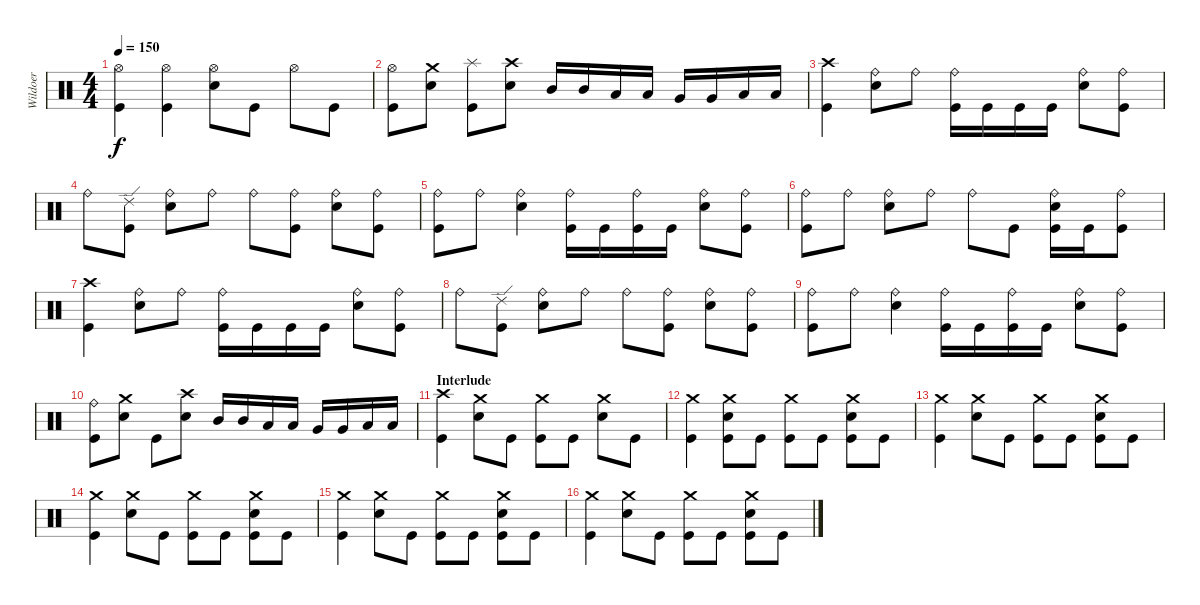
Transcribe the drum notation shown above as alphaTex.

\track ("Wildoer" "Wildoer") {instrument percussion}
\staff {score}
\articulation defaults
\ts (4 4)
\tempo 150
\clef neutral
\ks c
("Hi-Hat (open)" "Kick (hit)").4{dy f} ("Hi-Hat (open)" "Kick (hit)").4 ("Hi-Hat (open)" "Electric Snare (hit)").8 "Kick (hit)".8 "Hi-Hat (open)".8 "Kick (hit)".8 |
("Hi-Hat (open)" "Kick (hit)").8 ("Crash medium (hit)" "Electric Snare (hit)").8 ("Splash (hit)" "Kick (hit)").8 ("Crash high (hit)" "Electric Snare (hit)").8 "Mid Tom (hit)".16 "Mid Tom (hit)".16 "Low Tom (hit)".16 "Low Tom (hit)".16 "Very Low Tom (hit)".16 "Very Low Tom (hit)".16 "Low Floor Tom (hit)".16 "Low Floor Tom (hit)".16 |
("Crash high (hit)" "Kick (hit)").4 ("Ride (bell)" "Electric Snare (hit)").8 "Ride (bell)".8 ("Ride (bell)" "Kick (hit)").16 "Kick (hit)".16 "Kick (hit)".16 "Kick (hit)".16 ("Ride (bell)" "Electric Snare (hit)").8 ("Ride (bell)" "Kick (hit)").8 |
"Ride (bell)".8 ("Ride (edge) 2" "Kick (hit)").8 ("Ride (bell)" "Electric Snare (hit)").8 "Ride (bell)".8 "Ride (bell)".8 ("Ride (bell)" "Kick (hit)").8 ("Ride (bell)" "Electric Snare (hit)").8 ("Ride (bell)" "Kick (hit)").8 |
("Ride (bell)" "Kick (hit)").8 "Ride (bell)".8 ("Ride (bell)" "Electric Snare (hit)").4 ("Ride (bell)" "Kick (hit)").16 "Kick (hit)".16 ("Ride (bell)" "Kick (hit)").16 "Kick (hit)".16 ("Ride (bell)" "Electric Snare (hit)").8 ("Ride (bell)" "Kick (hit)").8 |
("Ride (bell)" "Kick (hit)").8 "Ride (bell)".8 ("Ride (bell)" "Electric Snare (hit)").8 "Ride (bell)".8 "Ride (bell)".8 "Kick (hit)".8 ("Ride (bell)" "Electric Snare (hit)" "Kick (hit)").16 "Kick (hit)".16 ("Ride (bell)" "Kick (hit)").8 |
("Crash high (hit)" "Kick (hit)").4 ("Ride (bell)" "Electric Snare (hit)").8 "Ride (bell)".8 ("Ride (bell)" "Kick (hit)").16 "Kick (hit)".16 "Kick (hit)".16 "Kick (hit)".16 ("Ride (bell)" "Electric Snare (hit)").8 ("Ride (bell)" "Kick (hit)").8 |
"Ride (bell)".8 ("Ride (edge) 2" "Kick (hit)").8 ("Ride (bell)" "Electric Snare (hit)").8 "Ride (bell)".8 "Ride (bell)".8 ("Ride (bell)" "Kick (hit)").8 ("Ride (bell)" "Electric Snare (hit)").8 ("Ride (bell)" "Kick (hit)").8 |
("Ride (bell)" "Kick (hit)").8 "Ride (bell)".8 ("Ride (bell)" "Electric Snare (hit)").4 ("Ride (bell)" "Kick (hit)").16 "Kick (hit)".16 ("Ride (bell)" "Kick (hit)").16 "Kick (hit)".16 ("Ride (bell)" "Electric Snare (hit)").8 ("Ride (bell)" "Kick (hit)").8 |
("Ride (bell)" "Kick (hit)").8 ("Crash medium (hit)" "Electric Snare (hit)").8 "Kick (hit)".8 ("Crash high (hit)" "Electric Snare (hit)").8 "Mid Tom (hit)".16 "Mid Tom (hit)".16 "Low Tom (hit)".16 "Low Tom (hit)".16 "Very Low Tom (hit)".16 "Very Low Tom (hit)".16 "Low Floor Tom (hit)".16 "Low Floor Tom (hit)".16 |
\section ("" "Interlude")
("Crash high (hit)" "Kick (hit)").4 ("Crash medium (hit)" "Electric Snare (hit)").8 "Kick (hit)".8 ("Crash medium (hit)" "Kick (hit)").8 "Kick (hit)".8 ("Crash medium (hit)" "Electric Snare (hit)").8 "Kick (hit)".8 |
("Crash medium (hit)" "Kick (hit)").4 ("Crash medium (hit)" "Electric Snare (hit)" "Kick (hit)").8 "Kick (hit)".8 ("Crash medium (hit)" "Kick (hit)").8 "Kick (hit)".8 ("Crash medium (hit)" "Electric Snare (hit)" "Kick (hit)").8 "Kick (hit)".8 |
("Crash medium (hit)" "Kick (hit)").4 ("Crash medium (hit)" "Electric Snare (hit)").8 "Kick (hit)".8 ("Crash medium (hit)" "Kick (hit)").8 "Kick (hit)".8 ("Crash medium (hit)" "Electric Snare (hit)" "Kick (hit)").8 "Kick (hit)".8 |
("Crash medium (hit)" "Kick (hit)").4 ("Crash medium (hit)" "Electric Snare (hit)").8 "Kick (hit)".8 ("Crash medium (hit)" "Kick (hit)").8 "Kick (hit)".8 ("Crash medium (hit)" "Electric Snare (hit)" "Kick (hit)").8 "Kick (hit)".8 |
("Crash medium (hit)" "Kick (hit)").4 ("Crash medium (hit)" "Electric Snare (hit)").8 "Kick (hit)".8 ("Crash medium (hit)" "Kick (hit)").8 "Kick (hit)".8 ("Crash medium (hit)" "Electric Snare (hit)" "Kick (hit)").8 "Kick (hit)".8 |
("Crash medium (hit)" "Kick (hit)").4 ("Crash medium (hit)" "Electric Snare (hit)").8 "Kick (hit)".8 ("Crash medium (hit)" "Kick (hit)").8 "Kick (hit)".8 ("Crash medium (hit)" "Electric Snare (hit)" "Kick (hit)").8 "Kick (hit)".8
